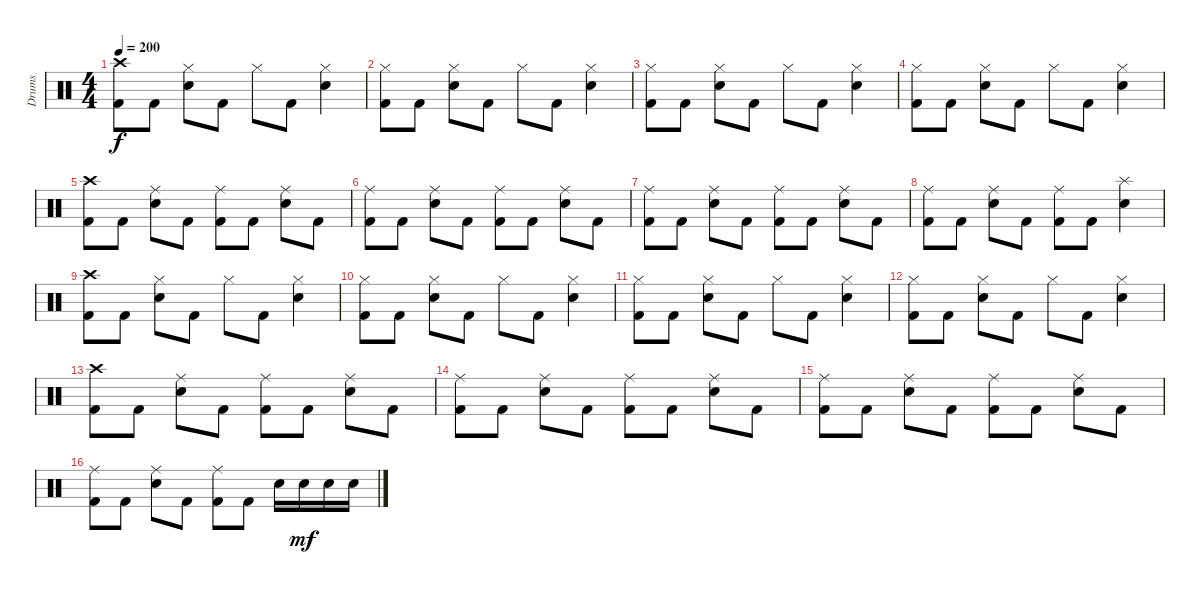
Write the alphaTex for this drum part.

\track ("Drums" "Drums") {instrument percussion}
\staff {score}
\articulation defaults
\ts (4 4)
\tempo 200
\clef neutral
\ks c
("Kick (hit) 2" "Crash high (hit)").8{dy f} "Kick (hit) 2".8 ("Hi-Hat (closed)" "Electric Snare (hit)").8 "Kick (hit) 2".8 "Hi-Hat (closed)".8 "Kick (hit) 2".8 ("Hi-Hat (closed)" "Electric Snare (hit)").4 |
("Kick (hit) 2" "Hi-Hat (closed)").8 "Kick (hit) 2".8 ("Hi-Hat (closed)" "Electric Snare (hit)").8 "Kick (hit) 2".8 "Hi-Hat (closed)".8 "Kick (hit) 2".8 ("Hi-Hat (closed)" "Electric Snare (hit)").4 |
("Kick (hit) 2" "Hi-Hat (closed)").8 "Kick (hit) 2".8 ("Hi-Hat (closed)" "Electric Snare (hit)").8 "Kick (hit) 2".8 "Hi-Hat (closed)".8 "Kick (hit) 2".8 ("Hi-Hat (closed)" "Electric Snare (hit)").4 |
("Kick (hit) 2" "Hi-Hat (closed)").8 "Kick (hit) 2".8 ("Hi-Hat (closed)" "Electric Snare (hit)").8 "Kick (hit) 2".8 "Hi-Hat (closed)".8 "Kick (hit) 2".8 ("Hi-Hat (closed)" "Electric Snare (hit)").4 |
("Kick (hit) 2" "Crash high (hit)").8 "Kick (hit) 2".8 ("Ride (middle)" "Electric Snare (hit)").8 "Kick (hit) 2".8 ("Kick (hit) 2" "Ride (middle)").8 "Kick (hit) 2".8 ("Ride (middle)" "Electric Snare (hit)").8 "Kick (hit) 2".8 |
("Kick (hit) 2" "Ride (middle)").8 "Kick (hit) 2".8 ("Ride (middle)" "Electric Snare (hit)").8 "Kick (hit) 2".8 ("Kick (hit) 2" "Ride (middle)").8 "Kick (hit) 2".8 ("Ride (middle)" "Electric Snare (hit)").8 "Kick (hit) 2".8 |
("Kick (hit) 2" "Ride (middle)").8 "Kick (hit) 2".8 ("Ride (middle)" "Electric Snare (hit)").8 "Kick (hit) 2".8 ("Kick (hit) 2" "Ride (middle)").8 "Kick (hit) 2".8 ("Ride (middle)" "Electric Snare (hit)").8 "Kick (hit) 2".8 |
("Kick (hit) 2" "Ride (middle)").8 "Kick (hit) 2".8 ("Ride (middle)" "Electric Snare (hit)").8 "Kick (hit) 2".8 ("Kick (hit) 2" "Ride (middle)").8 "Kick (hit) 2".8 ("Splash (hit)" "Electric Snare (hit)").4 |
("Kick (hit) 2" "Crash high (hit)").8 "Kick (hit) 2".8 ("Hi-Hat (closed)" "Electric Snare (hit)").8 "Kick (hit) 2".8 "Hi-Hat (closed)".8 "Kick (hit) 2".8 ("Hi-Hat (closed)" "Electric Snare (hit)").4 |
("Kick (hit) 2" "Hi-Hat (closed)").8 "Kick (hit) 2".8 ("Hi-Hat (closed)" "Electric Snare (hit)").8 "Kick (hit) 2".8 "Hi-Hat (closed)".8 "Kick (hit) 2".8 ("Hi-Hat (closed)" "Electric Snare (hit)").4 |
("Kick (hit) 2" "Hi-Hat (closed)").8 "Kick (hit) 2".8 ("Hi-Hat (closed)" "Electric Snare (hit)").8 "Kick (hit) 2".8 "Hi-Hat (closed)".8 "Kick (hit) 2".8 ("Hi-Hat (closed)" "Electric Snare (hit)").4 |
("Kick (hit) 2" "Hi-Hat (closed)").8 "Kick (hit) 2".8 ("Hi-Hat (closed)" "Electric Snare (hit)").8 "Kick (hit) 2".8 "Hi-Hat (closed)".8 "Kick (hit) 2".8 ("Hi-Hat (closed)" "Electric Snare (hit)").4 |
("Kick (hit) 2" "Crash high (hit)").8 "Kick (hit) 2".8 ("Ride (middle)" "Electric Snare (hit)").8 "Kick (hit) 2".8 ("Kick (hit) 2" "Ride (middle)").8 "Kick (hit) 2".8 ("Ride (middle)" "Electric Snare (hit)").8 "Kick (hit) 2".8 |
("Kick (hit) 2" "Ride (middle)").8 "Kick (hit) 2".8 ("Ride (middle)" "Electric Snare (hit)").8 "Kick (hit) 2".8 ("Kick (hit) 2" "Ride (middle)").8 "Kick (hit) 2".8 ("Ride (middle)" "Electric Snare (hit)").8 "Kick (hit) 2".8 |
("Kick (hit) 2" "Ride (middle)").8 "Kick (hit) 2".8 ("Ride (middle)" "Electric Snare (hit)").8 "Kick (hit) 2".8 ("Kick (hit) 2" "Ride (middle)").8 "Kick (hit) 2".8 ("Ride (middle)" "Electric Snare (hit)").8 "Kick (hit) 2".8 |
("Kick (hit) 2" "Ride (middle)").8 "Kick (hit) 2".8 ("Ride (middle)" "Electric Snare (hit)").8 "Kick (hit) 2".8 ("Kick (hit) 2" "Ride (middle)").8 "Kick (hit) 2".8 "Electric Snare (hit)".16 "Electric Snare (hit)".16{dy mf} "Electric Snare (hit)".16 "Electric Snare (hit)".16
